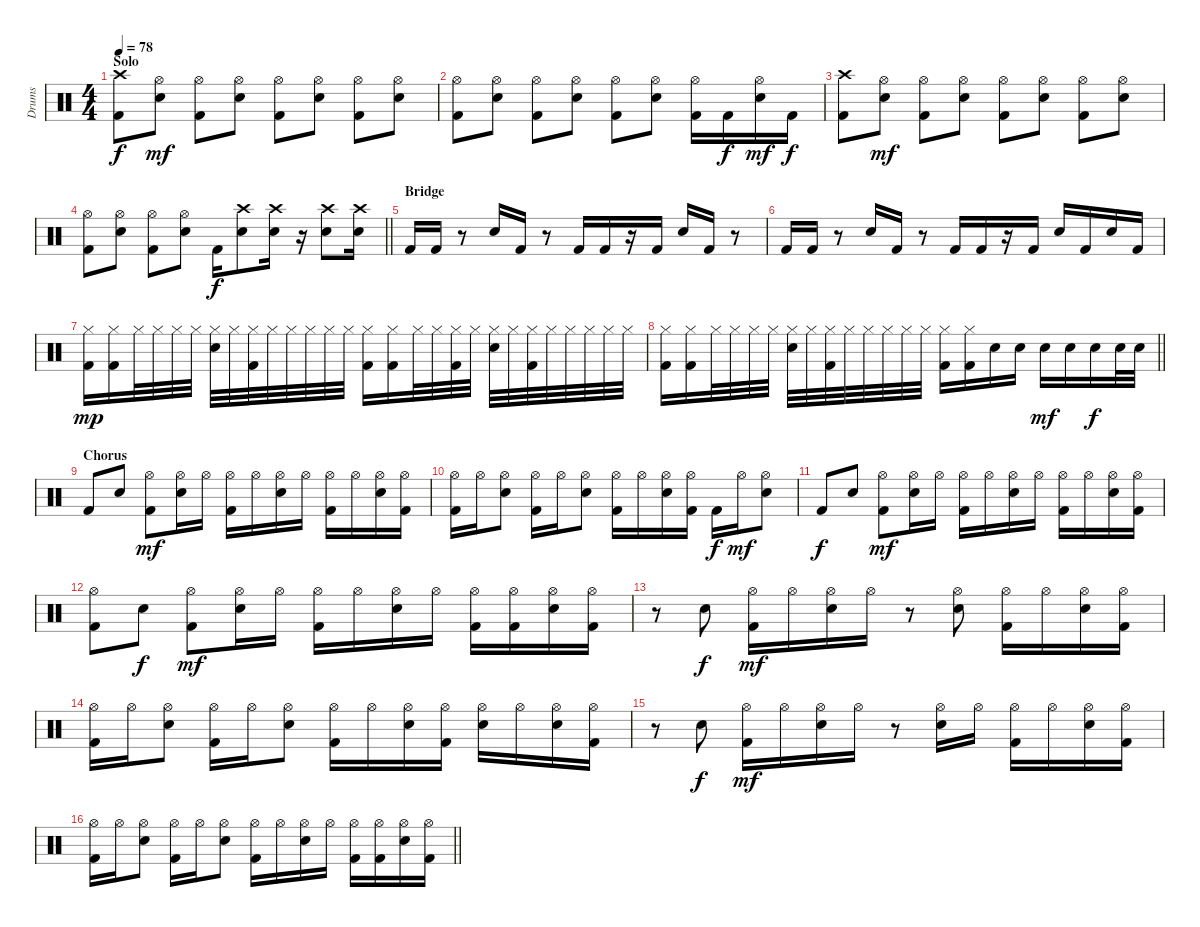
\track ("Drums" "Drums") {instrument percussion}
\staff {score}
\articulation defaults
\ts (4 4)
\section ("" "Solo")
\tempo 78
\clef neutral
\ks c
("Crash high (hit)" "Kick (hit) 2").8{dy f} ("Hi-Hat (open)" "Electric Snare (hit)").8{dy mf} ("Hi-Hat (open)" "Kick (hit) 2").8 ("Hi-Hat (open)" "Electric Snare (hit)").8 ("Hi-Hat (open)" "Kick (hit) 2").8 ("Hi-Hat (open)" "Electric Snare (hit)").8 ("Hi-Hat (open)" "Kick (hit) 2").8 ("Hi-Hat (open)" "Electric Snare (hit)").8 |
("Hi-Hat (open)" "Kick (hit) 2").8 ("Hi-Hat (open)" "Electric Snare (hit)").8 ("Hi-Hat (open)" "Kick (hit) 2").8 ("Hi-Hat (open)" "Electric Snare (hit)").8 ("Hi-Hat (open)" "Kick (hit) 2").8 ("Hi-Hat (open)" "Electric Snare (hit)").8 ("Hi-Hat (open)" "Kick (hit) 2").16 "Kick (hit) 2".16{dy f} ("Hi-Hat (open)" "Electric Snare (hit)").16{dy mf} "Kick (hit) 2".16{dy f} |
("Crash high (hit)" "Kick (hit) 2").8 ("Hi-Hat (open)" "Electric Snare (hit)").8{dy mf} ("Hi-Hat (open)" "Kick (hit) 2").8 ("Hi-Hat (open)" "Electric Snare (hit)").8 ("Hi-Hat (open)" "Kick (hit) 2").8 ("Hi-Hat (open)" "Electric Snare (hit)").8 ("Hi-Hat (open)" "Kick (hit) 2").8 ("Hi-Hat (open)" "Electric Snare (hit)").8 |
\barLineRight lightlight
("Hi-Hat (open)" "Kick (hit) 2").8 ("Hi-Hat (open)" "Electric Snare (hit)").8 ("Hi-Hat (open)" "Kick (hit) 2").8 ("Hi-Hat (open)" "Electric Snare (hit)").8 "Kick (hit) 2".16{dy f} ("Crash high (hit)" "Electric Snare (hit)").8 ("Crash high (hit)" "Electric Snare (hit)").16 r.16 ("Crash high (hit)" "Electric Snare (hit)").8 ("Crash high (hit)" "Electric Snare (hit)").16 |
\section ("" "Bridge")
"Kick (hit) 2".16 "Kick (hit) 2".16 r.8 "Electric Snare (hit)".16 "Kick (hit) 2".16 r.8 "Kick (hit) 2".16 "Kick (hit) 2".16 r.16 "Kick (hit) 2".16 "Electric Snare (hit)".16 "Kick (hit) 2".16 r.8 |
"Kick (hit) 2".16 "Kick (hit) 2".16 r.8 "Electric Snare (hit)".16 "Kick (hit) 2".16 r.8 "Kick (hit) 2".16 "Kick (hit) 2".16 r.16 "Kick (hit) 2".16 "Electric Snare (hit)".16 "Kick (hit) 2".16 "Electric Snare (hit)".16 "Kick (hit) 2".16 |
("Hi-Hat (closed)" "Kick (hit) 2").16{dy mp} ("Hi-Hat (closed)" "Kick (hit) 2").16 "Hi-Hat (closed)".32 "Hi-Hat (closed)".32 "Hi-Hat (closed)".32 "Hi-Hat (closed)".32 ("Hi-Hat (closed)" "Electric Snare (hit)").32 "Hi-Hat (closed)".32 ("Hi-Hat (closed)" "Kick (hit) 2").32 "Hi-Hat (closed)".32 "Hi-Hat (closed)".32 "Hi-Hat (closed)".32 "Hi-Hat (closed)".32 "Hi-Hat (closed)".32 ("Hi-Hat (closed)" "Kick (hit) 2").16 ("Hi-Hat (closed)" "Kick (hit) 2").16 "Hi-Hat (closed)".32 "Hi-Hat (closed)".32 ("Hi-Hat (closed)" "Kick (hit) 2").32 "Hi-Hat (closed)".32 ("Hi-Hat (closed)" "Electric Snare (hit)").32 "Hi-Hat (closed)".32 ("Hi-Hat (closed)" "Kick (hit) 2").32 "Hi-Hat (closed)".32 "Hi-Hat (closed)".32 "Hi-Hat (closed)".32 "Hi-Hat (closed)".32 "Hi-Hat (closed)".32 |
\barLineRight lightlight
("Hi-Hat (closed)" "Kick (hit) 2").16 ("Hi-Hat (closed)" "Kick (hit) 2").16 "Hi-Hat (closed)".32 "Hi-Hat (closed)".32 "Hi-Hat (closed)".32 "Hi-Hat (closed)".32 ("Hi-Hat (closed)" "Electric Snare (hit)").32 "Hi-Hat (closed)".32 ("Hi-Hat (closed)" "Kick (hit) 2").32 "Hi-Hat (closed)".32 "Hi-Hat (closed)".32 "Hi-Hat (closed)".32 "Hi-Hat (closed)".32 "Hi-Hat (closed)".32 ("Hi-Hat (closed)" "Kick (hit) 2").16 ("Hi-Hat (closed)" "Kick (hit) 2").16 "Electric Snare (hit)".16 "Electric Snare (hit)".16 "Electric Snare (hit)".16{dy mf} "Electric Snare (hit)".16 "Electric Snare (hit)".16{dy f} "Electric Snare (hit)".32 "Electric Snare (hit)".32 |
\section ("" "Chorus")
"Kick (hit) 2".8 "Electric Snare (hit)".8 ("Hi-Hat (open)" "Kick (hit) 2").8{dy mf} ("Hi-Hat (open)" "Electric Snare (hit)").16 "Hi-Hat (open)".16 ("Hi-Hat (open)" "Kick (hit) 2").16 "Hi-Hat (open)".16 ("Hi-Hat (open)" "Electric Snare (hit)").16 "Hi-Hat (open)".16 ("Hi-Hat (open)" "Kick (hit) 2").16 "Hi-Hat (open)".16 ("Hi-Hat (open)" "Electric Snare (hit)").16 ("Hi-Hat (open)" "Kick (hit) 2").16 |
("Hi-Hat (open)" "Kick (hit) 2").16 "Hi-Hat (open)".16 ("Hi-Hat (open)" "Electric Snare (hit)").8 ("Hi-Hat (open)" "Kick (hit) 2").16 "Hi-Hat (open)".16 ("Hi-Hat (open)" "Electric Snare (hit)").8 ("Hi-Hat (open)" "Kick (hit) 2").16 "Hi-Hat (open)".16 ("Hi-Hat (open)" "Electric Snare (hit)").16 ("Hi-Hat (open)" "Kick (hit) 2").16 "Kick (hit) 2".16{dy f} "Hi-Hat (open)".16{dy mf} ("Hi-Hat (open)" "Electric Snare (hit)").8 |
"Kick (hit) 2".8{dy f} "Electric Snare (hit)".8 ("Hi-Hat (open)" "Kick (hit) 2").8{dy mf} ("Hi-Hat (open)" "Electric Snare (hit)").16 "Hi-Hat (open)".16 ("Hi-Hat (open)" "Kick (hit) 2").16 "Hi-Hat (open)".16 ("Hi-Hat (open)" "Electric Snare (hit)").16 "Hi-Hat (open)".16 ("Hi-Hat (open)" "Kick (hit) 2").16 "Hi-Hat (open)".16 ("Hi-Hat (open)" "Electric Snare (hit)").16 ("Hi-Hat (open)" "Kick (hit) 2").16 |
("Hi-Hat (open)" "Kick (hit) 2").8 "Electric Snare (hit)".8{dy f} ("Hi-Hat (open)" "Kick (hit) 2").8{dy mf} ("Hi-Hat (open)" "Electric Snare (hit)").16 "Hi-Hat (open)".16 ("Hi-Hat (open)" "Kick (hit) 2").16 "Hi-Hat (open)".16 ("Hi-Hat (open)" "Electric Snare (hit)").16 "Hi-Hat (open)".16 ("Hi-Hat (open)" "Kick (hit) 2").16 ("Hi-Hat (open)" "Kick (hit) 2").16 ("Hi-Hat (open)" "Electric Snare (hit)").16 ("Hi-Hat (open)" "Kick (hit) 2").16 |
r.8 "Electric Snare (hit)".8{dy f} ("Hi-Hat (open)" "Kick (hit) 2").16{dy mf} "Hi-Hat (open)".16 ("Hi-Hat (open)" "Electric Snare (hit)").16 "Hi-Hat (open)".16 r.8 ("Hi-Hat (open)" "Electric Snare (hit)").8 ("Hi-Hat (open)" "Kick (hit) 2").16 "Hi-Hat (open)".16 ("Hi-Hat (open)" "Electric Snare (hit)").16 ("Hi-Hat (open)" "Kick (hit) 2").16 |
("Hi-Hat (open)" "Kick (hit) 2").16 "Hi-Hat (open)".16 ("Hi-Hat (open)" "Electric Snare (hit)").8 ("Hi-Hat (open)" "Kick (hit) 2").16 "Hi-Hat (open)".16 ("Hi-Hat (open)" "Electric Snare (hit)").8 ("Hi-Hat (open)" "Kick (hit) 2").16 "Hi-Hat (open)".16 ("Hi-Hat (open)" "Electric Snare (hit)").16 ("Hi-Hat (open)" "Kick (hit) 2").16 ("Hi-Hat (open)" "Electric Snare (hit)").16 "Hi-Hat (open)".16 ("Hi-Hat (open)" "Electric Snare (hit)").16 ("Hi-Hat (open)" "Kick (hit) 2").16 |
r.8 "Electric Snare (hit)".8{dy f} ("Hi-Hat (open)" "Kick (hit) 2").16{dy mf} "Hi-Hat (open)".16 ("Hi-Hat (open)" "Electric Snare (hit)").16 "Hi-Hat (open)".16 r.8 ("Hi-Hat (open)" "Electric Snare (hit)").16 "Hi-Hat (open)".16 ("Hi-Hat (open)" "Kick (hit) 2").16 "Hi-Hat (open)".16 ("Hi-Hat (open)" "Electric Snare (hit)").16 ("Hi-Hat (open)" "Kick (hit) 2").16 |
\barLineRight lightlight
("Hi-Hat (open)" "Kick (hit) 2").16 "Hi-Hat (open)".16 ("Hi-Hat (open)" "Electric Snare (hit)").8 ("Hi-Hat (open)" "Kick (hit) 2").16 "Hi-Hat (open)".16 ("Hi-Hat (open)" "Electric Snare (hit)").8 ("Hi-Hat (open)" "Kick (hit) 2").16 "Hi-Hat (open)".16 ("Hi-Hat (open)" "Electric Snare (hit)").16 "Hi-Hat (open)".16 ("Hi-Hat (open)" "Kick (hit) 2").16 ("Hi-Hat (open)" "Kick (hit) 2").16 ("Hi-Hat (open)" "Electric Snare (hit)").16 ("Hi-Hat (open)" "Kick (hit) 2").16
